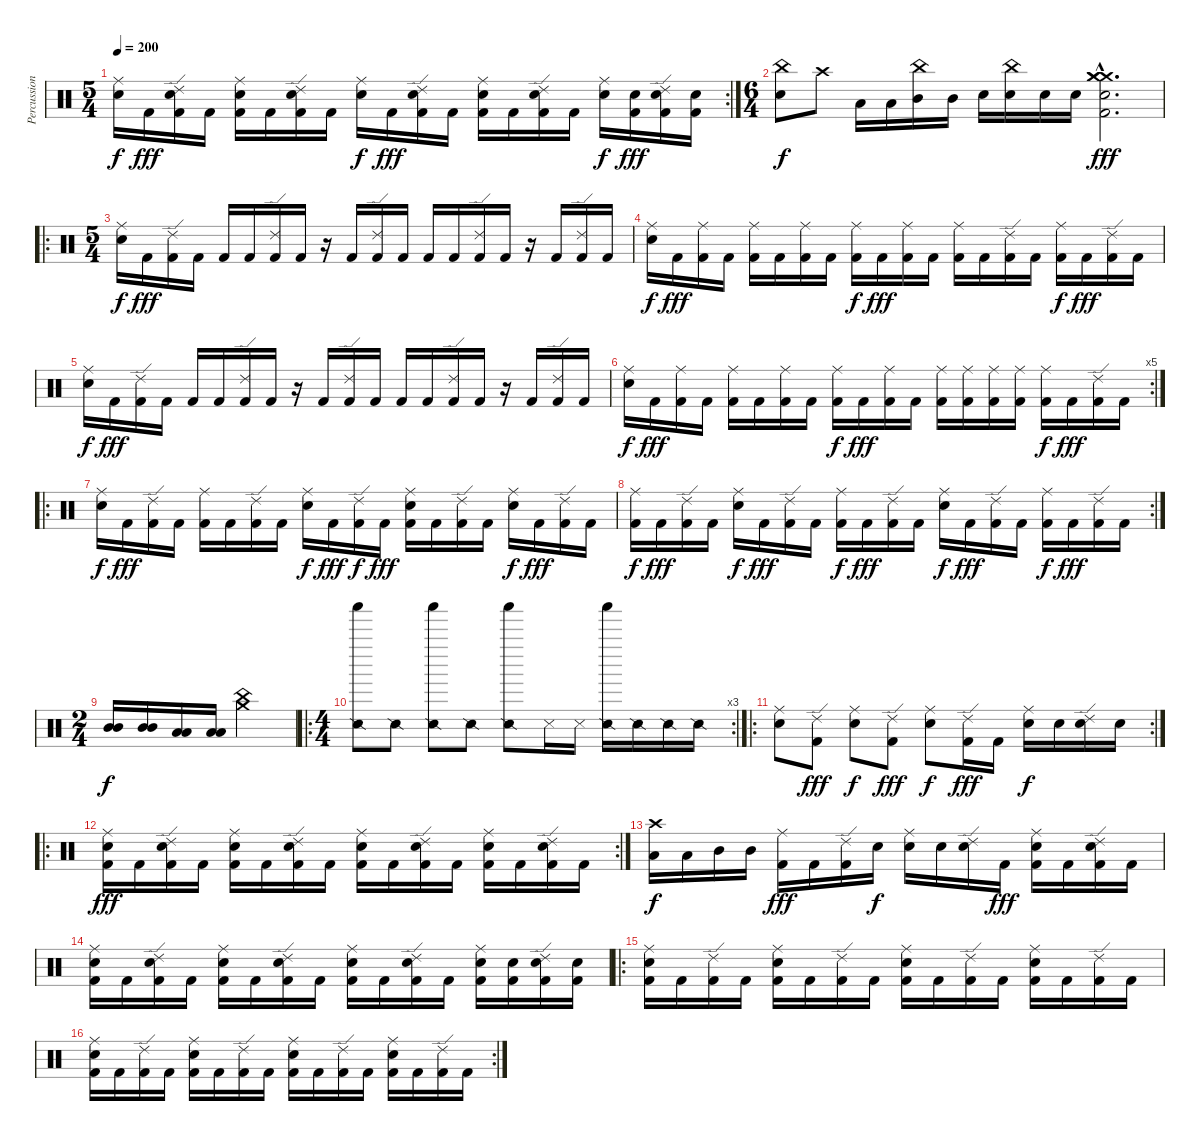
\track ("Percussion" "Percussion") {instrument percussion}
\staff {score}
\articulation defaults
\rc 2
\ts (5 4)
\tempo 200
\clef neutral
\ks c
("Ride (middle)" "Electric Snare (hit)").16{dy f} "Kick (hit) 2".16{dy fff} ("Ride (edge) 2" "Electric Snare (hit)" "Kick (hit) 2").16 "Kick (hit) 2".16 ("Ride (middle)" "Electric Snare (hit)" "Kick (hit) 2").16 "Kick (hit) 2".16 ("Ride (edge) 2" "Electric Snare (hit)" "Kick (hit) 2").16 "Kick (hit) 2".16 ("Ride (middle)" "Electric Snare (hit)").16{dy f} "Kick (hit) 2".16{dy fff} ("Ride (edge) 2" "Electric Snare (hit)" "Kick (hit) 2").16 "Kick (hit) 2".16 ("Ride (middle)" "Electric Snare (hit)" "Kick (hit) 2").16 "Kick (hit) 2".16 ("Ride (edge) 2" "Electric Snare (hit)" "Kick (hit) 2").16 "Kick (hit) 2".16 ("Ride (middle)" "Electric Snare (hit)").16{dy f} ("Electric Snare (hit)" "Kick (hit) 2").16{dy fff} ("Ride (edge) 2" "Electric Snare (hit)" "Kick (hit) 2").16 ("Electric Snare (hit)" "Kick (hit) 2").16 |
\ts (6 4)
("China (hit)" "Electric Snare (hit)").8{dy f} "Crash high (hit)".8 "Low Tom (hit)".16 "Low Tom (hit)".16 ("China (hit)" "Mid Tom (hit)").16 "Mid Tom (hit)".16 "Electric Snare (hit)".16 ("China (hit)" "Electric Snare (hit)").16 "Electric Snare (hit)".16 "Electric Snare (hit)".16 ("Crash medium (hit)"{hac} "Crash medium (hit)"{hac} "Crash medium (hit)"{hac} "Electric Snare (hit)"{hac} "Kick (hit) 2"{hac}).2{d dy fff} |
\ro
\ts (5 4)
("Ride (middle)" "Electric Snare (hit)").16{dy f} "Kick (hit) 2".16{dy fff} ("Ride (edge) 2" "Kick (hit) 2").16 "Kick (hit) 2".16 "Kick (hit) 2".16 "Kick (hit) 2".16 ("Ride (edge) 2" "Kick (hit) 2").16 "Kick (hit) 2".16 r.16 "Kick (hit) 2".16 ("Ride (edge) 2" "Kick (hit) 2").16 "Kick (hit) 2".16 "Kick (hit) 2".16 "Kick (hit) 2".16 ("Ride (edge) 2" "Kick (hit) 2").16 "Kick (hit) 2".16 r.16 "Kick (hit) 2".16 ("Ride (edge) 2" "Kick (hit) 2").16 "Kick (hit) 2".16 |
("Ride (middle)" "Electric Snare (hit)").16{dy f} "Kick (hit) 2".16{dy fff} ("Ride (middle)" "Kick (hit) 2").16 "Kick (hit) 2".16 ("Ride (middle)" "Kick (hit) 2").16 "Kick (hit) 2".16 ("Ride (middle)" "Kick (hit) 2").16 "Kick (hit) 2".16 ("Ride (middle)" "Kick (hit) 2").16{dy f} "Kick (hit) 2".16{dy fff} ("Ride (middle)" "Kick (hit) 2").16 "Kick (hit) 2".16 ("Ride (middle)" "Kick (hit) 2").16 "Kick (hit) 2".16 ("Ride (edge) 2" "Kick (hit) 2").16 "Kick (hit) 2".16 ("Ride (middle)" "Kick (hit) 2").16{dy f} "Kick (hit) 2".16{dy fff} ("Ride (edge) 2" "Kick (hit) 2").16 "Kick (hit) 2".16 |
("Ride (middle)" "Electric Snare (hit)").16{dy f} "Kick (hit) 2".16{dy fff} ("Ride (edge) 2" "Kick (hit) 2").16 "Kick (hit) 2".16 "Kick (hit) 2".16 "Kick (hit) 2".16 ("Ride (edge) 2" "Kick (hit) 2").16 "Kick (hit) 2".16 r.16 "Kick (hit) 2".16 ("Ride (edge) 2" "Kick (hit) 2").16 "Kick (hit) 2".16 "Kick (hit) 2".16 "Kick (hit) 2".16 ("Ride (edge) 2" "Kick (hit) 2").16 "Kick (hit) 2".16 r.16 "Kick (hit) 2".16 ("Ride (edge) 2" "Kick (hit) 2").16 "Kick (hit) 2".16 |
\rc 5
("Ride (middle)" "Electric Snare (hit)").16{dy f} "Kick (hit) 2".16{dy fff} ("Ride (middle)" "Kick (hit) 2").16 "Kick (hit) 2".16 ("Ride (middle)" "Kick (hit) 2").16 "Kick (hit) 2".16 ("Ride (middle)" "Kick (hit) 2").16 "Kick (hit) 2".16 ("Ride (middle)" "Kick (hit) 2").16{dy f} "Kick (hit) 2".16{dy fff} ("Ride (middle)" "Kick (hit) 2").16 "Kick (hit) 2".16 ("Ride (middle)" "Kick (hit) 2").16 ("Ride (middle)" "Kick (hit) 2").16 ("Ride (middle)" "Kick (hit) 2").16 ("Ride (middle)" "Kick (hit) 2").16 ("Ride (middle)" "Kick (hit) 2").16{dy f} "Kick (hit) 2".16{dy fff} ("Ride (edge) 2" "Kick (hit) 2").16 "Kick (hit) 2".16 |
\ro
("Ride (middle)" "Electric Snare (hit)").16{dy f} "Kick (hit) 2".16{dy fff} ("Ride (edge) 2" "Kick (hit) 2").16 "Kick (hit) 2".16 ("Ride (middle)" "Kick (hit) 2").16 "Kick (hit) 2".16 ("Ride (edge) 2" "Kick (hit) 2").16 "Kick (hit) 2".16 ("Ride (middle)" "Electric Snare (hit)").16{dy f} "Kick (hit) 2".16{dy fff} ("Ride (edge) 2" "Kick (hit) 2").16{dy f} "Kick (hit) 2".16{dy fff} ("Ride (middle)" "Electric Snare (hit)" "Kick (hit) 2").16 "Kick (hit) 2".16 ("Ride (edge) 2" "Kick (hit) 2").16 "Kick (hit) 2".16 ("Ride (middle)" "Electric Snare (hit)").16{dy f} "Kick (hit) 2".16{dy fff} ("Ride (edge) 2" "Kick (hit) 2").16 "Kick (hit) 2".16 |
\rc 2
("Ride (middle)" "Kick (hit) 2").16{dy f} "Kick (hit) 2".16{dy fff} ("Ride (edge) 2" "Kick (hit) 2").16 "Kick (hit) 2".16 ("Ride (middle)" "Electric Snare (hit)").16{dy f} "Kick (hit) 2".16{dy fff} ("Ride (edge) 2" "Kick (hit) 2").16 "Kick (hit) 2".16 ("Ride (middle)" "Kick (hit) 2").16{dy f} "Kick (hit) 2".16{dy fff} ("Ride (edge) 2" "Kick (hit) 2").16 "Kick (hit) 2".16 ("Ride (middle)" "Electric Snare (hit)").16{dy f} "Kick (hit) 2".16{dy fff} ("Ride (edge) 2" "Kick (hit) 2").16 "Kick (hit) 2".16 ("Ride (middle)" "Kick (hit) 2").16{dy f} "Kick (hit) 2".16{dy fff} ("Ride (edge) 2" "Kick (hit) 2").16 "Kick (hit) 2".16 |
\ts (2 4)
("Mid Tom (hit)" "Mid Tom (hit)").16{dy f} ("Mid Tom (hit)" "Mid Tom (hit)").16 ("Low Tom (hit)" "Low Tom (hit)").16 ("Low Tom (hit)" "Low Tom (hit)").16 ("Crash medium (hit)" "China (hit)").4{bu 480} |
\ro
\rc 3
\ts (4 4)
("Shaker (hit)" "Snare (side stick) 2").8 "Snare (side stick) 2".8 ("Shaker (hit)" "Snare (side stick) 2").8 "Snare (side stick) 2".8 ("Shaker (hit)" "Snare (side stick) 2").8 "Metronome (hit)".16 "Metronome (hit)".16 ("Shaker (hit)" "Snare (side stick) 2").16 "Snare (side stick) 2".16 "Snare (side stick) 2".16 "Snare (side stick) 2".16 |
\ro
\rc 2
("Ride (middle)" "Electric Snare (hit)").8 ("Ride (edge) 2" "Kick (hit) 2").8{dy fff} ("Ride (middle)" "Electric Snare (hit)").8{dy f} ("Ride (edge) 2" "Kick (hit) 2").8{dy fff} ("Ride (middle)" "Electric Snare (hit)").8{dy f} ("Ride (edge) 2" "Kick (hit) 2").16{dy fff} "Kick (hit) 2".16 ("Ride (middle)" "Electric Snare (hit)").16{dy f} "Electric Snare (hit)".16 ("Ride (edge) 2" "Electric Snare (hit)").16 "Electric Snare (hit)".16 |
\ro
\rc 2
("Ride (middle)" "Electric Snare (hit)" "Kick (hit) 2").16{dy fff} "Kick (hit) 2".16 ("Ride (edge) 2" "Electric Snare (hit)" "Kick (hit) 2").16 "Kick (hit) 2".16 ("Ride (middle)" "Electric Snare (hit)" "Kick (hit) 2").16 "Kick (hit) 2".16 ("Ride (edge) 2" "Electric Snare (hit)" "Kick (hit) 2").16 "Kick (hit) 2".16 ("Ride (middle)" "Electric Snare (hit)" "Kick (hit) 2").16 "Kick (hit) 2".16 ("Ride (edge) 2" "Electric Snare (hit)" "Kick (hit) 2").16 "Kick (hit) 2".16 ("Ride (middle)" "Electric Snare (hit)" "Kick (hit) 2").16 "Kick (hit) 2".16 ("Ride (edge) 2" "Electric Snare (hit)" "Kick (hit) 2").16 "Kick (hit) 2".16 |
("Crash high (hit)" "Low Tom (hit)").16{dy f} "Low Tom (hit)".16 "Mid Tom (hit)".16 "Mid Tom (hit)".16 ("Ride (middle)" "Kick (hit) 2").16{dy fff} "Kick (hit) 2".16 ("Ride (edge) 2" "Kick (hit) 2").16 "Electric Snare (hit)".16{dy f} ("Ride (middle)" "Electric Snare (hit)").16 "Electric Snare (hit)".16 ("Ride (edge) 2" "Electric Snare (hit)").16 "Kick (hit) 2".16{dy fff} ("Ride (middle)" "Electric Snare (hit)" "Kick (hit) 2").16 "Kick (hit) 2".16 ("Ride (edge) 2" "Electric Snare (hit)" "Kick (hit) 2").16 "Kick (hit) 2".16 |
("Ride (middle)" "Electric Snare (hit)" "Kick (hit) 2").16 "Kick (hit) 2".16 ("Ride (edge) 2" "Electric Snare (hit)" "Kick (hit) 2").16 "Kick (hit) 2".16 ("Ride (middle)" "Electric Snare (hit)" "Kick (hit) 2").16 "Kick (hit) 2".16 ("Ride (edge) 2" "Electric Snare (hit)" "Kick (hit) 2").16 "Kick (hit) 2".16 ("Ride (middle)" "Electric Snare (hit)" "Kick (hit) 2").16 "Kick (hit) 2".16 ("Ride (edge) 2" "Electric Snare (hit)" "Kick (hit) 2").16 "Kick (hit) 2".16 ("Ride (middle)" "Electric Snare (hit)" "Kick (hit) 2").16 ("Electric Snare (hit)" "Kick (hit) 2").16 ("Ride (edge) 2" "Electric Snare (hit)" "Kick (hit) 2").16 ("Electric Snare (hit)" "Kick (hit) 2").16 |
\ro
("Ride (middle)" "Electric Snare (hit)" "Kick (hit) 2").16 "Kick (hit) 2".16 ("Ride (edge) 2" "Kick (hit) 2").16 "Kick (hit) 2".16 ("Ride (middle)" "Electric Snare (hit)" "Kick (hit) 2").16 "Kick (hit) 2".16 ("Ride (edge) 2" "Kick (hit) 2").16 "Kick (hit) 2".16 ("Ride (middle)" "Electric Snare (hit)" "Kick (hit) 2").16 "Kick (hit) 2".16 ("Ride (edge) 2" "Kick (hit) 2").16 "Kick (hit) 2".16 ("Ride (middle)" "Electric Snare (hit)" "Kick (hit) 2").16 "Kick (hit) 2".16 ("Ride (edge) 2" "Kick (hit) 2").16 "Kick (hit) 2".16 |
\rc 2
("Ride (middle)" "Electric Snare (hit)" "Kick (hit) 2").16 "Kick (hit) 2".16 ("Ride (edge) 2" "Kick (hit) 2").16 "Kick (hit) 2".16 ("Ride (middle)" "Electric Snare (hit)" "Kick (hit) 2").16 "Kick (hit) 2".16 ("Ride (edge) 2" "Kick (hit) 2").16 "Kick (hit) 2".16 ("Ride (middle)" "Electric Snare (hit)" "Kick (hit) 2").16 "Kick (hit) 2".16 ("Ride (edge) 2" "Kick (hit) 2").16 "Kick (hit) 2".16 ("Ride (middle)" "Electric Snare (hit)" "Kick (hit) 2").16 "Kick (hit) 2".16 ("Ride (edge) 2" "Kick (hit) 2").16 "Kick (hit) 2".16
